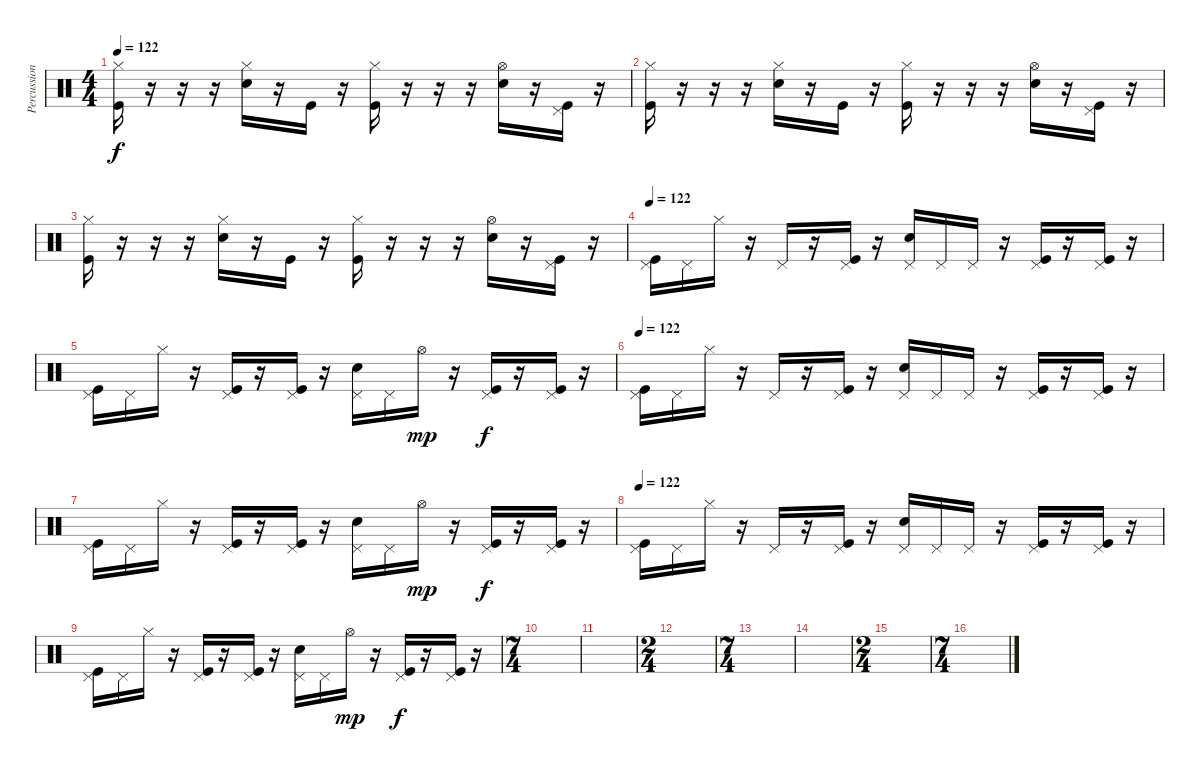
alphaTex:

\track ("Percussions" "Percussion") {instrument percussion}
\staff {score}
\articulation defaults
\ts (4 4)
\tempo 122
\clef neutral
\ks c
("Hi-Hat (closed)" "Kick (hit)").16{dy f} r.16 r.16 r.16 ("Hi-Hat (closed)" "Electric Snare (hit)").16 r.16 "Kick (hit)".16 r.16 ("Hi-Hat (closed)" "Kick (hit)").16 r.16 r.16 r.16 ("Hi-Hat (open)" "Electric Snare (hit)").16 r.16 ("Pedal Hi-Hat (hit)" "Kick (hit)").16 r.16 |
("Hi-Hat (closed)" "Kick (hit)").16 r.16 r.16 r.16 ("Hi-Hat (closed)" "Electric Snare (hit)").16 r.16 "Kick (hit)".16 r.16 ("Hi-Hat (closed)" "Kick (hit)").16 r.16 r.16 r.16 ("Hi-Hat (open)" "Electric Snare (hit)").16 r.16 ("Pedal Hi-Hat (hit)" "Kick (hit)").16 r.16 |
("Hi-Hat (closed)" "Kick (hit)").16 r.16 r.16 r.16 ("Hi-Hat (closed)" "Electric Snare (hit)").16 r.16 "Kick (hit)".16 r.16 ("Hi-Hat (closed)" "Kick (hit)").16 r.16 r.16 r.16 ("Hi-Hat (open)" "Electric Snare (hit)").16 r.16 ("Pedal Hi-Hat (hit)" "Kick (hit)").16 r.16 |
\tempo 122
("Pedal Hi-Hat (hit)" "Kick (hit)").16 "Pedal Hi-Hat (hit)".16 "Hi-Hat (closed)".16 r.16 "Pedal Hi-Hat (hit)".16 r.16 ("Pedal Hi-Hat (hit)" "Kick (hit)").16 r.16 ("Pedal Hi-Hat (hit)" "Electric Snare (hit)").16 "Pedal Hi-Hat (hit)".16 "Pedal Hi-Hat (hit)".16 r.16 ("Pedal Hi-Hat (hit)" "Kick (hit)").16 r.16 ("Pedal Hi-Hat (hit)" "Kick (hit)").16 r.16 |
("Pedal Hi-Hat (hit)" "Kick (hit)").16 "Pedal Hi-Hat (hit)".16 "Hi-Hat (closed)".16 r.16 ("Pedal Hi-Hat (hit)" "Kick (hit)").16 r.16 ("Pedal Hi-Hat (hit)" "Kick (hit)").16 r.16 ("Pedal Hi-Hat (hit)" "Electric Snare (hit)").16 "Pedal Hi-Hat (hit)".16 "Hi-Hat (open)".16{dy mp} r.16 ("Pedal Hi-Hat (hit)" "Kick (hit)").16{dy f} r.16 ("Pedal Hi-Hat (hit)" "Kick (hit)").16 r.16 |
\tempo 122
("Pedal Hi-Hat (hit)" "Kick (hit)").16 "Pedal Hi-Hat (hit)".16 "Hi-Hat (closed)".16 r.16 "Pedal Hi-Hat (hit)".16 r.16 ("Pedal Hi-Hat (hit)" "Kick (hit)").16 r.16 ("Pedal Hi-Hat (hit)" "Electric Snare (hit)").16 "Pedal Hi-Hat (hit)".16 "Pedal Hi-Hat (hit)".16 r.16 ("Pedal Hi-Hat (hit)" "Kick (hit)").16 r.16 ("Pedal Hi-Hat (hit)" "Kick (hit)").16 r.16 |
("Pedal Hi-Hat (hit)" "Kick (hit)").16 "Pedal Hi-Hat (hit)".16 "Hi-Hat (closed)".16 r.16 ("Pedal Hi-Hat (hit)" "Kick (hit)").16 r.16 ("Pedal Hi-Hat (hit)" "Kick (hit)").16 r.16 ("Pedal Hi-Hat (hit)" "Electric Snare (hit)").16 "Pedal Hi-Hat (hit)".16 "Hi-Hat (open)".16{dy mp} r.16 ("Pedal Hi-Hat (hit)" "Kick (hit)").16{dy f} r.16 ("Pedal Hi-Hat (hit)" "Kick (hit)").16 r.16 |
\tempo 122
("Pedal Hi-Hat (hit)" "Kick (hit)").16 "Pedal Hi-Hat (hit)".16 "Hi-Hat (closed)".16 r.16 "Pedal Hi-Hat (hit)".16 r.16 ("Pedal Hi-Hat (hit)" "Kick (hit)").16 r.16 ("Pedal Hi-Hat (hit)" "Electric Snare (hit)").16 "Pedal Hi-Hat (hit)".16 "Pedal Hi-Hat (hit)".16 r.16 ("Pedal Hi-Hat (hit)" "Kick (hit)").16 r.16 ("Pedal Hi-Hat (hit)" "Kick (hit)").16 r.16 |
("Pedal Hi-Hat (hit)" "Kick (hit)").16 "Pedal Hi-Hat (hit)".16 "Hi-Hat (closed)".16 r.16 ("Pedal Hi-Hat (hit)" "Kick (hit)").16 r.16 ("Pedal Hi-Hat (hit)" "Kick (hit)").16 r.16 ("Pedal Hi-Hat (hit)" "Electric Snare (hit)").16 "Pedal Hi-Hat (hit)".16 "Hi-Hat (open)".16{dy mp} r.16 ("Pedal Hi-Hat (hit)" "Kick (hit)").16{dy f} r.16 ("Pedal Hi-Hat (hit)" "Kick (hit)").16 r.16 |
\ts (7 4)
|
|
\ts (2 4)
|
\ts (7 4)
|
|
\ts (2 4)
|
\ts (7 4)
